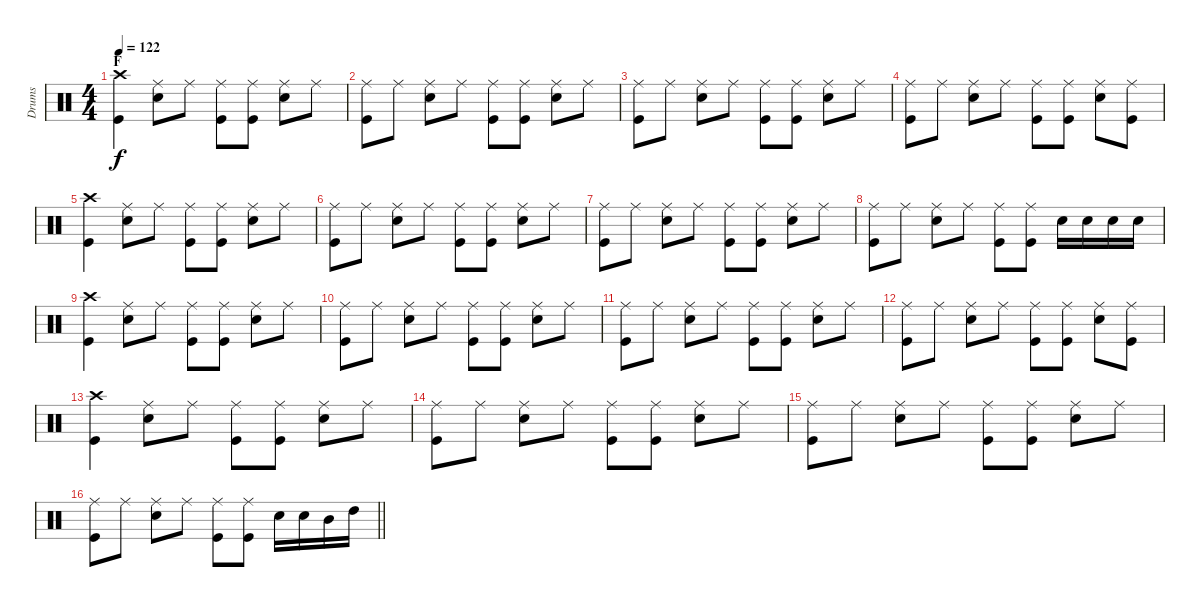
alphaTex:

\track ("Drums" "Drums") {instrument percussion}
\staff {score}
\articulation defaults
\ts (4 4)
\section ("" "F")
\tempo 122
\clef neutral
\ks c
("Crash high (hit)" "Kick (hit)").4{dy f} ("Ride (middle)" "Electric Snare (hit)").8 "Ride (middle)".8 ("Ride (middle)" "Kick (hit)").8 ("Ride (middle)" "Kick (hit)").8 ("Ride (middle)" "Electric Snare (hit)").8 "Ride (middle)".8 |
("Ride (middle)" "Kick (hit)").8 "Ride (middle)".8 ("Ride (middle)" "Electric Snare (hit)").8 "Ride (middle)".8 ("Ride (middle)" "Kick (hit)").8 ("Ride (middle)" "Kick (hit)").8 ("Ride (middle)" "Electric Snare (hit)").8 "Ride (middle)".8 |
("Ride (middle)" "Kick (hit)").8 "Ride (middle)".8 ("Ride (middle)" "Electric Snare (hit)").8 "Ride (middle)".8 ("Ride (middle)" "Kick (hit)").8 ("Ride (middle)" "Kick (hit)").8 ("Ride (middle)" "Electric Snare (hit)").8 "Ride (middle)".8 |
("Ride (middle)" "Kick (hit)").8 "Ride (middle)".8 ("Ride (middle)" "Electric Snare (hit)").8 "Ride (middle)".8 ("Ride (middle)" "Kick (hit)").8 ("Ride (middle)" "Kick (hit)").8 ("Ride (middle)" "Electric Snare (hit)").8 ("Ride (middle)" "Kick (hit)").8 |
("Crash high (hit)" "Kick (hit)").4 ("Ride (middle)" "Electric Snare (hit)").8 "Ride (middle)".8 ("Ride (middle)" "Kick (hit)").8 ("Ride (middle)" "Kick (hit)").8 ("Ride (middle)" "Electric Snare (hit)").8 "Ride (middle)".8 |
("Ride (middle)" "Kick (hit)").8 "Ride (middle)".8 ("Ride (middle)" "Electric Snare (hit)").8 "Ride (middle)".8 ("Ride (middle)" "Kick (hit)").8 ("Ride (middle)" "Kick (hit)").8 ("Ride (middle)" "Electric Snare (hit)").8 "Ride (middle)".8 |
("Ride (middle)" "Kick (hit)").8 "Ride (middle)".8 ("Ride (middle)" "Electric Snare (hit)").8 "Ride (middle)".8 ("Ride (middle)" "Kick (hit)").8 ("Ride (middle)" "Kick (hit)").8 ("Ride (middle)" "Electric Snare (hit)").8 "Ride (middle)".8 |
("Ride (middle)" "Kick (hit)").8 "Ride (middle)".8 ("Ride (middle)" "Electric Snare (hit)").8 "Ride (middle)".8 ("Ride (middle)" "Kick (hit)").8 ("Ride (middle)" "Kick (hit)").8 "Electric Snare (hit)".16 "Electric Snare (hit)".16 "Electric Snare (hit)".16 "Electric Snare (hit)".16 |
("Crash high (hit)" "Kick (hit)").4 ("Ride (middle)" "Electric Snare (hit)").8 "Ride (middle)".8 ("Ride (middle)" "Kick (hit)").8 ("Ride (middle)" "Kick (hit)").8 ("Ride (middle)" "Electric Snare (hit)").8 "Ride (middle)".8 |
("Ride (middle)" "Kick (hit)").8 "Ride (middle)".8 ("Ride (middle)" "Electric Snare (hit)").8 "Ride (middle)".8 ("Ride (middle)" "Kick (hit)").8 ("Ride (middle)" "Kick (hit)").8 ("Ride (middle)" "Electric Snare (hit)").8 "Ride (middle)".8 |
("Ride (middle)" "Kick (hit)").8 "Ride (middle)".8 ("Ride (middle)" "Electric Snare (hit)").8 "Ride (middle)".8 ("Ride (middle)" "Kick (hit)").8 ("Ride (middle)" "Kick (hit)").8 ("Ride (middle)" "Electric Snare (hit)").8 "Ride (middle)".8 |
("Ride (middle)" "Kick (hit)").8 "Ride (middle)".8 ("Ride (middle)" "Electric Snare (hit)").8 "Ride (middle)".8 ("Ride (middle)" "Kick (hit)").8 ("Ride (middle)" "Kick (hit)").8 ("Ride (middle)" "Electric Snare (hit)").8 ("Ride (middle)" "Kick (hit)").8 |
("Crash high (hit)" "Kick (hit)").4 ("Ride (middle)" "Electric Snare (hit)").8 "Ride (middle)".8 ("Ride (middle)" "Kick (hit)").8 ("Ride (middle)" "Kick (hit)").8 ("Ride (middle)" "Electric Snare (hit)").8 "Ride (middle)".8 |
("Ride (middle)" "Kick (hit)").8 "Ride (middle)".8 ("Ride (middle)" "Electric Snare (hit)").8 "Ride (middle)".8 ("Ride (middle)" "Kick (hit)").8 ("Ride (middle)" "Kick (hit)").8 ("Ride (middle)" "Electric Snare (hit)").8 "Ride (middle)".8 |
("Ride (middle)" "Kick (hit)").8 "Ride (middle)".8 ("Ride (middle)" "Electric Snare (hit)").8 "Ride (middle)".8 ("Ride (middle)" "Kick (hit)").8 ("Ride (middle)" "Kick (hit)").8 ("Ride (middle)" "Electric Snare (hit)").8 "Ride (middle)".8 |
\barLineRight lightlight
("Ride (middle)" "Kick (hit)").8 "Ride (middle)".8 ("Ride (middle)" "Electric Snare (hit)").8 "Ride (middle)".8 ("Ride (middle)" "Kick (hit)").8 ("Ride (middle)" "Kick (hit)").8 "Electric Snare (hit)".16 "Electric Snare (hit)".16 "Mid Tom (hit)".16 "High Tom (hit)".16
